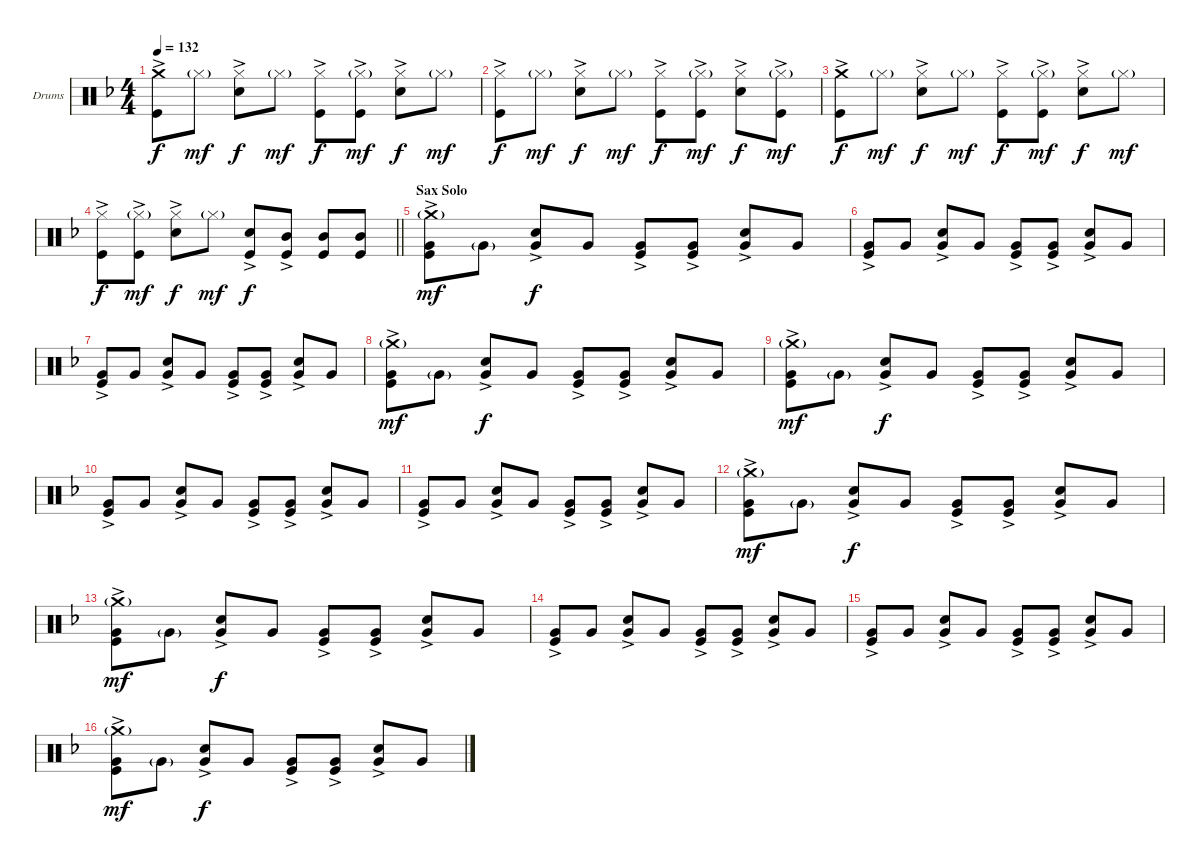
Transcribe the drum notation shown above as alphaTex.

\bracketExtendMode groupsimilarinstruments
\firstSystemTrackNameOrientation horizontal
\otherSystemsTrackNameOrientation horizontal
\track ("Drumkit" "Drums") {instrument percussion}
\staff {score}
\articulation defaults
\ts (4 4)
\tempo 132
\clef neutral
\ks f
("Crash medium (hit)" "Kick (hit)"{ac}).8{dy f} "Hi-Hat (closed)"{g}.8{dy mf} ("Hi-Hat (closed)" "Snare (hit) 2"{ac}).8{dy f} "Hi-Hat (closed)"{g}.8{dy mf} ("Hi-Hat (closed)" "Kick (hit)"{ac}).8{dy f} ("Hi-Hat (closed)"{g} "Kick (hit)"{ac}).8{dy mf} ("Hi-Hat (closed)" "Snare (hit) 2"{ac}).8{dy f} "Hi-Hat (closed)"{g}.8{dy mf} |
("Hi-Hat (closed)" "Kick (hit)"{ac}).8{dy f} "Hi-Hat (closed)"{g}.8{dy mf} ("Hi-Hat (closed)" "Snare (hit) 2"{ac}).8{dy f} "Hi-Hat (closed)"{g}.8{dy mf} ("Hi-Hat (closed)" "Kick (hit)"{ac}).8{dy f} ("Hi-Hat (closed)"{g} "Kick (hit)"{ac}).8{dy mf} ("Hi-Hat (closed)" "Snare (hit) 2"{ac}).8{dy f} ("Hi-Hat (closed)"{g} "Kick (hit)"{ac}).8{dy mf} |
("Crash medium (hit)" "Kick (hit)"{ac}).8{dy f} "Hi-Hat (closed)"{g}.8{dy mf} ("Hi-Hat (closed)" "Snare (hit) 2"{ac}).8{dy f} "Hi-Hat (closed)"{g}.8{dy mf} ("Hi-Hat (closed)" "Kick (hit)"{ac}).8{dy f} ("Hi-Hat (closed)"{g} "Kick (hit)"{ac}).8{dy mf} ("Hi-Hat (closed)" "Snare (hit) 2"{ac}).8{dy f} "Hi-Hat (closed)"{g}.8{dy mf} |
\barLineRight lightlight
("Hi-Hat (closed)" "Kick (hit)"{ac}).8{dy f} ("Hi-Hat (closed)"{g} "Kick (hit)"{ac}).8{dy mf} ("Hi-Hat (closed)" "Snare (hit) 2"{ac}).8{dy f} "Hi-Hat (closed)"{g}.8{dy mf} ("Snare (hit) 2"{ac} "Kick (hit)"{ac}).8{dy f} ("Mid Tom (hit)" "Kick (hit)"{ac}).8 ("Mid Tom (hit)" "Kick (hit)").8 ("Mid Tom (hit)" "Kick (hit)").8 |
\section ("" "Sax Solo")
("Crash medium (hit)"{g} "Very Low Tom (hit)"{ac} "Kick (hit)"{ac}).8{dy mf} "Very Low Tom (hit)"{g}.8 ("Snare (hit) 2"{ac} "Very Low Tom (hit)"{ac}).8{dy f} "Very Low Tom (hit)".8 ("Very Low Tom (hit)"{ac} "Kick (hit)"{ac}).8 ("Very Low Tom (hit)" "Kick (hit)"{ac}).8 ("Snare (hit) 2"{ac} "Very Low Tom (hit)"{ac}).8 "Very Low Tom (hit)".8 |
("Very Low Tom (hit)"{ac} "Kick (hit)"{ac}).8 "Very Low Tom (hit)".8 ("Snare (hit) 2"{ac} "Very Low Tom (hit)"{ac}).8 "Very Low Tom (hit)".8 ("Very Low Tom (hit)"{ac} "Kick (hit)"{ac}).8 ("Very Low Tom (hit)" "Kick (hit)"{ac}).8 ("Snare (hit) 2"{ac} "Very Low Tom (hit)"{ac}).8 "Very Low Tom (hit)".8 |
("Very Low Tom (hit)"{ac} "Kick (hit)"{ac}).8 "Very Low Tom (hit)".8 ("Snare (hit) 2"{ac} "Very Low Tom (hit)"{ac}).8 "Very Low Tom (hit)".8 ("Very Low Tom (hit)"{ac} "Kick (hit)"{ac}).8 ("Very Low Tom (hit)" "Kick (hit)"{ac}).8 ("Snare (hit) 2"{ac} "Very Low Tom (hit)"{ac}).8 "Very Low Tom (hit)".8 |
("Crash medium (hit)"{g} "Very Low Tom (hit)"{ac} "Kick (hit)"{ac}).8{dy mf} "Very Low Tom (hit)"{g}.8 ("Snare (hit) 2"{ac} "Very Low Tom (hit)"{ac}).8{dy f} "Very Low Tom (hit)".8 ("Very Low Tom (hit)"{ac} "Kick (hit)"{ac}).8 ("Very Low Tom (hit)" "Kick (hit)"{ac}).8 ("Snare (hit) 2"{ac} "Very Low Tom (hit)"{ac}).8 "Very Low Tom (hit)".8 |
("Crash medium (hit)"{g} "Very Low Tom (hit)"{ac} "Kick (hit)"{ac}).8{dy mf} "Very Low Tom (hit)"{g}.8 ("Snare (hit) 2"{ac} "Very Low Tom (hit)"{ac}).8{dy f} "Very Low Tom (hit)".8 ("Very Low Tom (hit)"{ac} "Kick (hit)"{ac}).8 ("Very Low Tom (hit)" "Kick (hit)"{ac}).8 ("Snare (hit) 2"{ac} "Very Low Tom (hit)"{ac}).8 "Very Low Tom (hit)".8 |
("Very Low Tom (hit)"{ac} "Kick (hit)"{ac}).8 "Very Low Tom (hit)".8 ("Snare (hit) 2"{ac} "Very Low Tom (hit)"{ac}).8 "Very Low Tom (hit)".8 ("Very Low Tom (hit)"{ac} "Kick (hit)"{ac}).8 ("Very Low Tom (hit)" "Kick (hit)"{ac}).8 ("Snare (hit) 2"{ac} "Very Low Tom (hit)"{ac}).8 "Very Low Tom (hit)".8 |
("Very Low Tom (hit)"{ac} "Kick (hit)"{ac}).8 "Very Low Tom (hit)".8 ("Snare (hit) 2"{ac} "Very Low Tom (hit)"{ac}).8 "Very Low Tom (hit)".8 ("Very Low Tom (hit)"{ac} "Kick (hit)"{ac}).8 ("Very Low Tom (hit)" "Kick (hit)"{ac}).8 ("Snare (hit) 2"{ac} "Very Low Tom (hit)"{ac}).8 "Very Low Tom (hit)".8 |
("Crash medium (hit)"{g} "Very Low Tom (hit)"{ac} "Kick (hit)"{ac}).8{dy mf} "Very Low Tom (hit)"{g}.8 ("Snare (hit) 2"{ac} "Very Low Tom (hit)"{ac}).8{dy f} "Very Low Tom (hit)".8 ("Very Low Tom (hit)"{ac} "Kick (hit)"{ac}).8 ("Very Low Tom (hit)" "Kick (hit)"{ac}).8 ("Snare (hit) 2"{ac} "Very Low Tom (hit)"{ac}).8 "Very Low Tom (hit)".8 |
("Crash medium (hit)"{g} "Very Low Tom (hit)"{ac} "Kick (hit)"{ac}).8{dy mf} "Very Low Tom (hit)"{g}.8 ("Snare (hit) 2"{ac} "Very Low Tom (hit)"{ac}).8{dy f} "Very Low Tom (hit)".8 ("Very Low Tom (hit)"{ac} "Kick (hit)"{ac}).8 ("Very Low Tom (hit)" "Kick (hit)"{ac}).8 ("Snare (hit) 2"{ac} "Very Low Tom (hit)"{ac}).8 "Very Low Tom (hit)".8 |
("Very Low Tom (hit)"{ac} "Kick (hit)"{ac}).8 "Very Low Tom (hit)".8 ("Snare (hit) 2"{ac} "Very Low Tom (hit)"{ac}).8 "Very Low Tom (hit)".8 ("Very Low Tom (hit)"{ac} "Kick (hit)"{ac}).8 ("Very Low Tom (hit)" "Kick (hit)"{ac}).8 ("Snare (hit) 2"{ac} "Very Low Tom (hit)"{ac}).8 "Very Low Tom (hit)".8 |
("Very Low Tom (hit)"{ac} "Kick (hit)"{ac}).8 "Very Low Tom (hit)".8 ("Snare (hit) 2"{ac} "Very Low Tom (hit)"{ac}).8 "Very Low Tom (hit)".8 ("Very Low Tom (hit)"{ac} "Kick (hit)"{ac}).8 ("Very Low Tom (hit)" "Kick (hit)"{ac}).8 ("Snare (hit) 2"{ac} "Very Low Tom (hit)"{ac}).8 "Very Low Tom (hit)".8 |
("Crash medium (hit)"{g} "Very Low Tom (hit)"{ac} "Kick (hit)"{ac}).8{dy mf} "Very Low Tom (hit)"{g}.8 ("Snare (hit) 2"{ac} "Very Low Tom (hit)"{ac}).8{dy f} "Very Low Tom (hit)".8 ("Very Low Tom (hit)"{ac} "Kick (hit)"{ac}).8 ("Very Low Tom (hit)" "Kick (hit)"{ac}).8 ("Snare (hit) 2"{ac} "Very Low Tom (hit)"{ac}).8 "Very Low Tom (hit)".8
